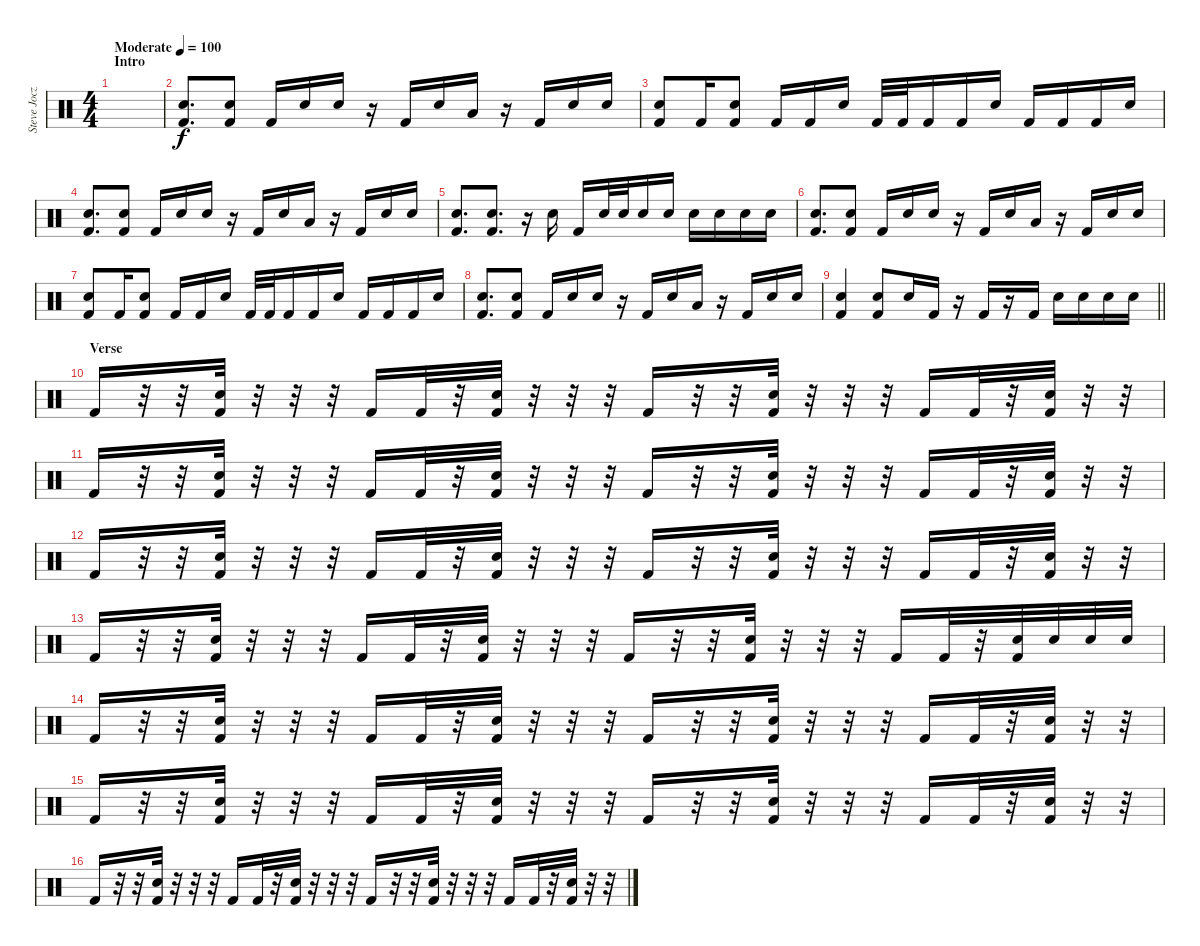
\track ("Steve Jocz" "Steve Jocz") {instrument percussion}
\staff {score}
\articulation defaults
\ts (4 4)
\section ("" "Intro")
\tempo (100 "Moderate")
\clef neutral
\ks c
|
("Snare (hit) 2" "Kick (hit) 2").8{d} ("Snare (hit) 2" "Kick (hit) 2").8 "Kick (hit) 2".16 "Snare (hit) 2".16 "Snare (hit) 2".16 r.16 "Kick (hit) 2".16 "Snare (hit) 2".16 "Low Tom (hit)".16 r.16 "Kick (hit) 2".16 "Snare (hit) 2".16 "Snare (hit) 2".16 |
("Snare (hit) 2" "Kick (hit) 2").8 "Kick (hit) 2".16 ("Snare (hit) 2" "Kick (hit) 2").8 "Kick (hit) 2".16 "Kick (hit) 2".16 "Snare (hit) 2".16 "Kick (hit) 2".32 "Kick (hit) 2".32 "Kick (hit) 2".16 "Kick (hit) 2".16 "Snare (hit) 2".16 "Kick (hit) 2".16 "Kick (hit) 2".16 "Kick (hit) 2".16 "Snare (hit) 2".16 |
("Snare (hit) 2" "Kick (hit) 2").8{d} ("Snare (hit) 2" "Kick (hit) 2").8 "Kick (hit) 2".16 "Snare (hit) 2".16 "Snare (hit) 2".16 r.16 "Kick (hit) 2".16 "Snare (hit) 2".16 "Low Tom (hit)".16 r.16 "Kick (hit) 2".16 "Snare (hit) 2".16 "Snare (hit) 2".16 |
("Snare (hit) 2" "Kick (hit) 2").8{d} ("Snare (hit) 2" "Kick (hit) 2").8{d} r.16 "Snare (hit) 2".16 "Kick (hit) 2".16 "Snare (hit) 2".32 "Snare (hit) 2".32 "Snare (hit) 2".16 "Snare (hit) 2".16 "Snare (hit) 2".16 "Snare (hit) 2".16 "Snare (hit) 2".16 "Snare (hit) 2".16 |
("Snare (hit) 2" "Kick (hit) 2").8{d} ("Snare (hit) 2" "Kick (hit) 2").8 "Kick (hit) 2".16 "Snare (hit) 2".16 "Snare (hit) 2".16 r.16 "Kick (hit) 2".16 "Snare (hit) 2".16 "Low Tom (hit)".16 r.16 "Kick (hit) 2".16 "Snare (hit) 2".16 "Snare (hit) 2".16 |
("Snare (hit) 2" "Kick (hit) 2").8 "Kick (hit) 2".16 ("Snare (hit) 2" "Kick (hit) 2").8 "Kick (hit) 2".16 "Kick (hit) 2".16 "Snare (hit) 2".16 "Kick (hit) 2".32 "Kick (hit) 2".32 "Kick (hit) 2".16 "Kick (hit) 2".16 "Snare (hit) 2".16 "Kick (hit) 2".16 "Kick (hit) 2".16 "Kick (hit) 2".16 "Snare (hit) 2".16 |
("Snare (hit) 2" "Kick (hit) 2").8{d} ("Snare (hit) 2" "Kick (hit) 2").8 "Kick (hit) 2".16 "Snare (hit) 2".16 "Snare (hit) 2".16 r.16 "Kick (hit) 2".16 "Snare (hit) 2".16 "Low Tom (hit)".16 r.16 "Kick (hit) 2".16 "Snare (hit) 2".16 "Snare (hit) 2".16 |
\barLineRight lightlight
("Snare (hit) 2" "Kick (hit) 2").4 ("Snare (hit) 2" "Kick (hit) 2").8 "Snare (hit) 2".16 "Kick (hit) 2".16 r.16 "Kick (hit) 2".16 r.16 "Kick (hit) 2".16 "Snare (hit) 2".16 "Snare (hit) 2".16 "Snare (hit) 2".16 "Snare (hit) 2".16 |
\section ("" "Verse")
"Kick (hit) 2".16 r.32 r.32 ("Snare (hit) 2" "Kick (hit) 2").32 r.32 r.32 r.32 "Kick (hit) 2".16 "Kick (hit) 2".32 r.32 ("Snare (hit) 2" "Kick (hit) 2").32 r.32 r.32 r.32 "Kick (hit) 2".16 r.32 r.32 ("Snare (hit) 2" "Kick (hit) 2").32 r.32 r.32 r.32 "Kick (hit) 2".16 "Kick (hit) 2".32 r.32 ("Snare (hit) 2" "Kick (hit) 2").32 r.32 r.32 |
"Kick (hit) 2".16 r.32 r.32 ("Snare (hit) 2" "Kick (hit) 2").32 r.32 r.32 r.32 "Kick (hit) 2".16 "Kick (hit) 2".32 r.32 ("Snare (hit) 2" "Kick (hit) 2").32 r.32 r.32 r.32 "Kick (hit) 2".16 r.32 r.32 ("Snare (hit) 2" "Kick (hit) 2").32 r.32 r.32 r.32 "Kick (hit) 2".16 "Kick (hit) 2".32 r.32 ("Snare (hit) 2" "Kick (hit) 2").32 r.32 r.32 |
"Kick (hit) 2".16 r.32 r.32 ("Snare (hit) 2" "Kick (hit) 2").32 r.32 r.32 r.32 "Kick (hit) 2".16 "Kick (hit) 2".32 r.32 ("Snare (hit) 2" "Kick (hit) 2").32 r.32 r.32 r.32 "Kick (hit) 2".16 r.32 r.32 ("Snare (hit) 2" "Kick (hit) 2").32 r.32 r.32 r.32 "Kick (hit) 2".16 "Kick (hit) 2".32 r.32 ("Snare (hit) 2" "Kick (hit) 2").32 r.32 r.32 |
"Kick (hit) 2".16 r.32 r.32 ("Snare (hit) 2" "Kick (hit) 2").32 r.32 r.32 r.32 "Kick (hit) 2".16 "Kick (hit) 2".32 r.32 ("Snare (hit) 2" "Kick (hit) 2").32 r.32 r.32 r.32 "Kick (hit) 2".16 r.32 r.32 ("Snare (hit) 2" "Kick (hit) 2").32 r.32 r.32 r.32 "Kick (hit) 2".16 "Kick (hit) 2".32 r.32 ("Snare (hit) 2" "Kick (hit) 2").32 "Snare (hit) 2".32 "Snare (hit) 2".32 "Snare (hit) 2".32 |
"Kick (hit) 2".16 r.32 r.32 ("Snare (hit) 2" "Kick (hit) 2").32 r.32 r.32 r.32 "Kick (hit) 2".16 "Kick (hit) 2".32 r.32 ("Snare (hit) 2" "Kick (hit) 2").32 r.32 r.32 r.32 "Kick (hit) 2".16 r.32 r.32 ("Snare (hit) 2" "Kick (hit) 2").32 r.32 r.32 r.32 "Kick (hit) 2".16 "Kick (hit) 2".32 r.32 ("Snare (hit) 2" "Kick (hit) 2").32 r.32 r.32 |
"Kick (hit) 2".16 r.32 r.32 ("Snare (hit) 2" "Kick (hit) 2").32 r.32 r.32 r.32 "Kick (hit) 2".16 "Kick (hit) 2".32 r.32 ("Snare (hit) 2" "Kick (hit) 2").32 r.32 r.32 r.32 "Kick (hit) 2".16 r.32 r.32 ("Snare (hit) 2" "Kick (hit) 2").32 r.32 r.32 r.32 "Kick (hit) 2".16 "Kick (hit) 2".32 r.32 ("Snare (hit) 2" "Kick (hit) 2").32 r.32 r.32 |
"Kick (hit) 2".16 r.32 r.32 ("Snare (hit) 2" "Kick (hit) 2").32 r.32 r.32 r.32 "Kick (hit) 2".16 "Kick (hit) 2".32 r.32 ("Snare (hit) 2" "Kick (hit) 2").32 r.32 r.32 r.32 "Kick (hit) 2".16 r.32 r.32 ("Snare (hit) 2" "Kick (hit) 2").32 r.32 r.32 r.32 "Kick (hit) 2".16 "Kick (hit) 2".32 r.32 ("Snare (hit) 2" "Kick (hit) 2").32 r.32 r.32
